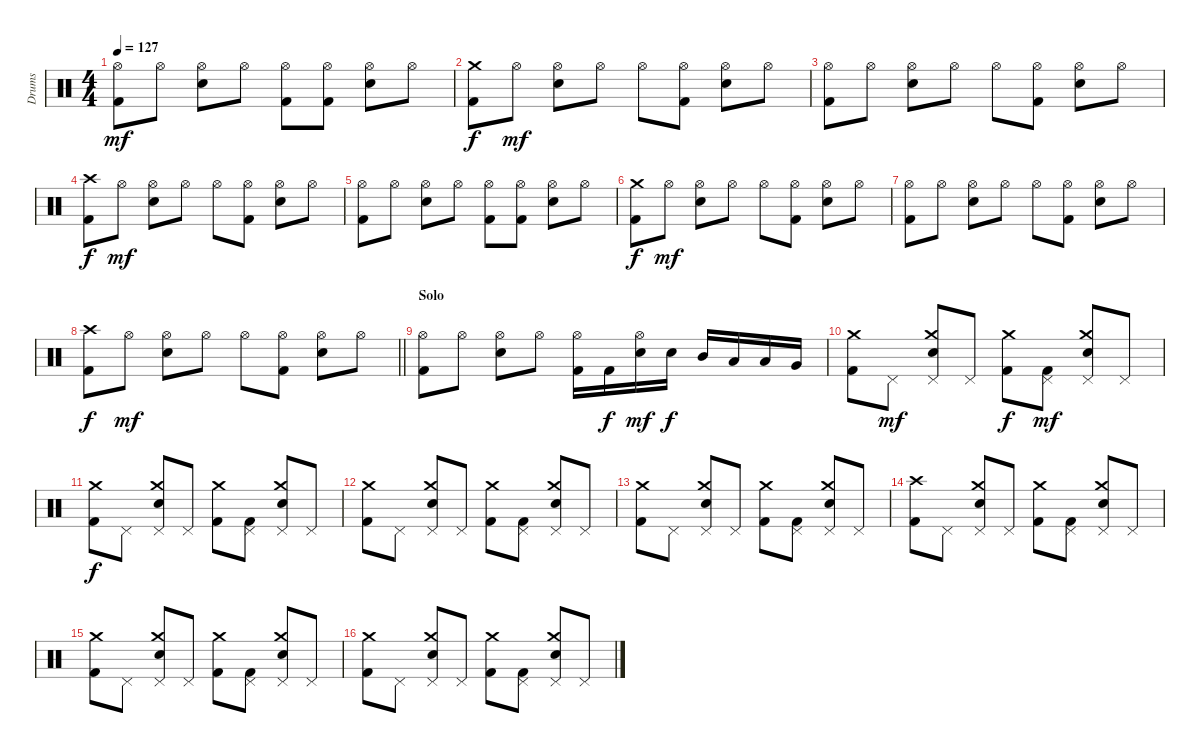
\track ("Drums" "Drums") {instrument percussion}
\staff {score}
\articulation defaults
\ts (4 4)
\tempo 127
\clef neutral
\ks c
("Hi-Hat (open)" "Kick (hit) 2").8{dy mf} "Hi-Hat (open)".8 ("Hi-Hat (open)" "Snare (hit) 2").8 "Hi-Hat (open)".8 ("Hi-Hat (open)" "Kick (hit) 2").8 ("Hi-Hat (open)" "Kick (hit) 2").8 ("Hi-Hat (open)" "Snare (hit) 2").8 "Hi-Hat (open)".8 |
("Crash medium (hit)" "Kick (hit) 2").8{dy f} "Hi-Hat (open)".8{dy mf} ("Hi-Hat (open)" "Snare (hit) 2").8 "Hi-Hat (open)".8 "Hi-Hat (open)".8 ("Hi-Hat (open)" "Kick (hit) 2").8 ("Hi-Hat (open)" "Snare (hit) 2").8 "Hi-Hat (open)".8 |
("Hi-Hat (open)" "Kick (hit) 2").8 "Hi-Hat (open)".8 ("Hi-Hat (open)" "Snare (hit) 2").8 "Hi-Hat (open)".8 "Hi-Hat (open)".8 ("Hi-Hat (open)" "Kick (hit) 2").8 ("Hi-Hat (open)" "Snare (hit) 2").8 "Hi-Hat (open)".8 |
("Crash high (hit)" "Kick (hit) 2").8{dy f} "Hi-Hat (open)".8{dy mf} ("Hi-Hat (open)" "Snare (hit) 2").8 "Hi-Hat (open)".8 "Hi-Hat (open)".8 ("Hi-Hat (open)" "Kick (hit) 2").8 ("Hi-Hat (open)" "Snare (hit) 2").8 "Hi-Hat (open)".8 |
("Hi-Hat (open)" "Kick (hit) 2").8 "Hi-Hat (open)".8 ("Hi-Hat (open)" "Snare (hit) 2").8 "Hi-Hat (open)".8 ("Hi-Hat (open)" "Kick (hit) 2").8 ("Hi-Hat (open)" "Kick (hit) 2").8 ("Hi-Hat (open)" "Snare (hit) 2").8 "Hi-Hat (open)".8 |
("Crash medium (hit)" "Kick (hit) 2").8{dy f} "Hi-Hat (open)".8{dy mf} ("Hi-Hat (open)" "Snare (hit) 2").8 "Hi-Hat (open)".8 "Hi-Hat (open)".8 ("Hi-Hat (open)" "Kick (hit) 2").8 ("Hi-Hat (open)" "Snare (hit) 2").8 "Hi-Hat (open)".8 |
("Hi-Hat (open)" "Kick (hit) 2").8 "Hi-Hat (open)".8 ("Hi-Hat (open)" "Snare (hit) 2").8 "Hi-Hat (open)".8 "Hi-Hat (open)".8 ("Hi-Hat (open)" "Kick (hit) 2").8 ("Hi-Hat (open)" "Snare (hit) 2").8 "Hi-Hat (open)".8 |
\barLineRight lightlight
("Crash high (hit)" "Kick (hit) 2").8{dy f} "Hi-Hat (open)".8{dy mf} ("Hi-Hat (open)" "Snare (hit) 2").8 "Hi-Hat (open)".8 "Hi-Hat (open)".8 ("Hi-Hat (open)" "Kick (hit) 2").8 ("Hi-Hat (open)" "Snare (hit) 2").8 "Hi-Hat (open)".8 |
\section ("" "Solo")
("Hi-Hat (open)" "Kick (hit) 2").8 "Hi-Hat (open)".8 ("Hi-Hat (open)" "Snare (hit) 2").8 "Hi-Hat (open)".8 ("Hi-Hat (open)" "Kick (hit) 2").16 "Kick (hit) 2".16{dy f} ("Hi-Hat (open)" "Snare (hit) 2").16{dy mf} "Snare (hit) 2".16{dy f} "Mid Tom (hit)".16 "Low Tom (hit)".16 "Low Tom (hit)".16 "Very Low Tom (hit)".16 |
("Crash medium (hit)" "Kick (hit) 2").8 "Pedal Hi-Hat (hit)".8{dy mf} ("Crash medium (hit)" "Pedal Hi-Hat (hit)" "Snare (hit) 2").8 "Pedal Hi-Hat (hit)".8 ("Crash medium (hit)" "Kick (hit) 2").8{dy f} ("Pedal Hi-Hat (hit)" "Kick (hit) 2").8{dy mf} ("Crash medium (hit)" "Pedal Hi-Hat (hit)" "Snare (hit) 2").8 "Pedal Hi-Hat (hit)".8 |
("Crash medium (hit)" "Kick (hit) 2").8{dy f} "Pedal Hi-Hat (hit)".8 ("Crash medium (hit)" "Pedal Hi-Hat (hit)" "Snare (hit) 2").8 "Pedal Hi-Hat (hit)".8 ("Crash medium (hit)" "Kick (hit) 2").8 ("Pedal Hi-Hat (hit)" "Kick (hit) 2").8 ("Crash medium (hit)" "Pedal Hi-Hat (hit)" "Snare (hit) 2").8 "Pedal Hi-Hat (hit)".8 |
("Crash medium (hit)" "Kick (hit) 2").8 "Pedal Hi-Hat (hit)".8 ("Crash medium (hit)" "Pedal Hi-Hat (hit)" "Snare (hit) 2").8 "Pedal Hi-Hat (hit)".8 ("Crash medium (hit)" "Kick (hit) 2").8 ("Pedal Hi-Hat (hit)" "Kick (hit) 2").8 ("Crash medium (hit)" "Pedal Hi-Hat (hit)" "Snare (hit) 2").8 "Pedal Hi-Hat (hit)".8 |
("Crash medium (hit)" "Kick (hit) 2").8 "Pedal Hi-Hat (hit)".8 ("Crash medium (hit)" "Pedal Hi-Hat (hit)" "Snare (hit) 2").8 "Pedal Hi-Hat (hit)".8 ("Crash medium (hit)" "Kick (hit) 2").8 ("Pedal Hi-Hat (hit)" "Kick (hit) 2").8 ("Crash medium (hit)" "Pedal Hi-Hat (hit)" "Snare (hit) 2").8 "Pedal Hi-Hat (hit)".8 |
("Crash high (hit)" "Kick (hit) 2").8 "Pedal Hi-Hat (hit)".8 ("Crash medium (hit)" "Pedal Hi-Hat (hit)" "Snare (hit) 2").8 "Pedal Hi-Hat (hit)".8 ("Crash medium (hit)" "Kick (hit) 2").8 ("Pedal Hi-Hat (hit)" "Kick (hit) 2").8 ("Crash medium (hit)" "Pedal Hi-Hat (hit)" "Snare (hit) 2").8 "Pedal Hi-Hat (hit)".8 |
("Crash medium (hit)" "Kick (hit) 2").8 "Pedal Hi-Hat (hit)".8 ("Crash medium (hit)" "Pedal Hi-Hat (hit)" "Snare (hit) 2").8 "Pedal Hi-Hat (hit)".8 ("Crash medium (hit)" "Kick (hit) 2").8 ("Pedal Hi-Hat (hit)" "Kick (hit) 2").8 ("Crash medium (hit)" "Pedal Hi-Hat (hit)" "Snare (hit) 2").8 "Pedal Hi-Hat (hit)".8 |
("Crash medium (hit)" "Kick (hit) 2").8 "Pedal Hi-Hat (hit)".8 ("Crash medium (hit)" "Pedal Hi-Hat (hit)" "Snare (hit) 2").8 "Pedal Hi-Hat (hit)".8 ("Crash medium (hit)" "Kick (hit) 2").8 ("Pedal Hi-Hat (hit)" "Kick (hit) 2").8 ("Crash medium (hit)" "Pedal Hi-Hat (hit)" "Snare (hit) 2").8 "Pedal Hi-Hat (hit)".8
